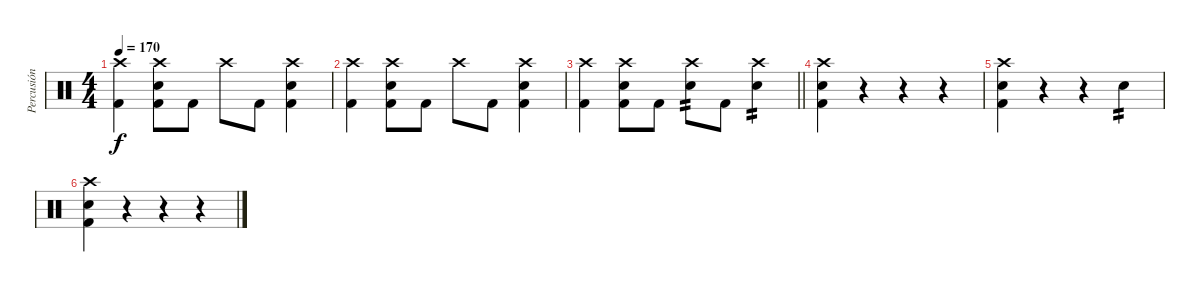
\track ("Percusión" "Percusión") {instrument percussion}
\staff {score}
\articulation defaults
\ts (4 4)
\tempo 170
\clef neutral
\ks c
("Crash high (hit)" "Kick (hit) 2").4{dy f} ("Crash high (hit)" "Electric Snare (hit)" "Kick (hit) 2").8 "Kick (hit) 2".8 "Crash high (hit)".8 "Kick (hit) 2".8 ("Crash high (hit)" "Electric Snare (hit)" "Kick (hit) 2").4 |
("Crash high (hit)" "Kick (hit) 2").4 ("Crash high (hit)" "Electric Snare (hit)" "Kick (hit) 2").8 "Kick (hit) 2".8 "Crash high (hit)".8 "Kick (hit) 2".8 ("Crash high (hit)" "Electric Snare (hit)" "Kick (hit) 2").4 |
\barLineRight lightlight
("Crash high (hit)" "Kick (hit) 2").4 ("Crash high (hit)" "Electric Snare (hit)" "Kick (hit) 2").8 "Kick (hit) 2".8 ("Crash high (hit)" "Electric Snare (hit)").8{tp 2} "Kick (hit) 2".8 ("Crash high (hit)" "Electric Snare (hit)").4{tp 2} |
("Crash high (hit)" "Electric Snare (hit)" "Kick (hit) 2").4 r.4 r.4 r.4 |
("Crash high (hit)" "Electric Snare (hit)" "Kick (hit) 2").4 r.4 r.4 "Electric Snare (hit)".4{tp 2} |
("Crash high (hit)" "Electric Snare (hit)" "Kick (hit) 2").4 r.4 r.4 r.4
